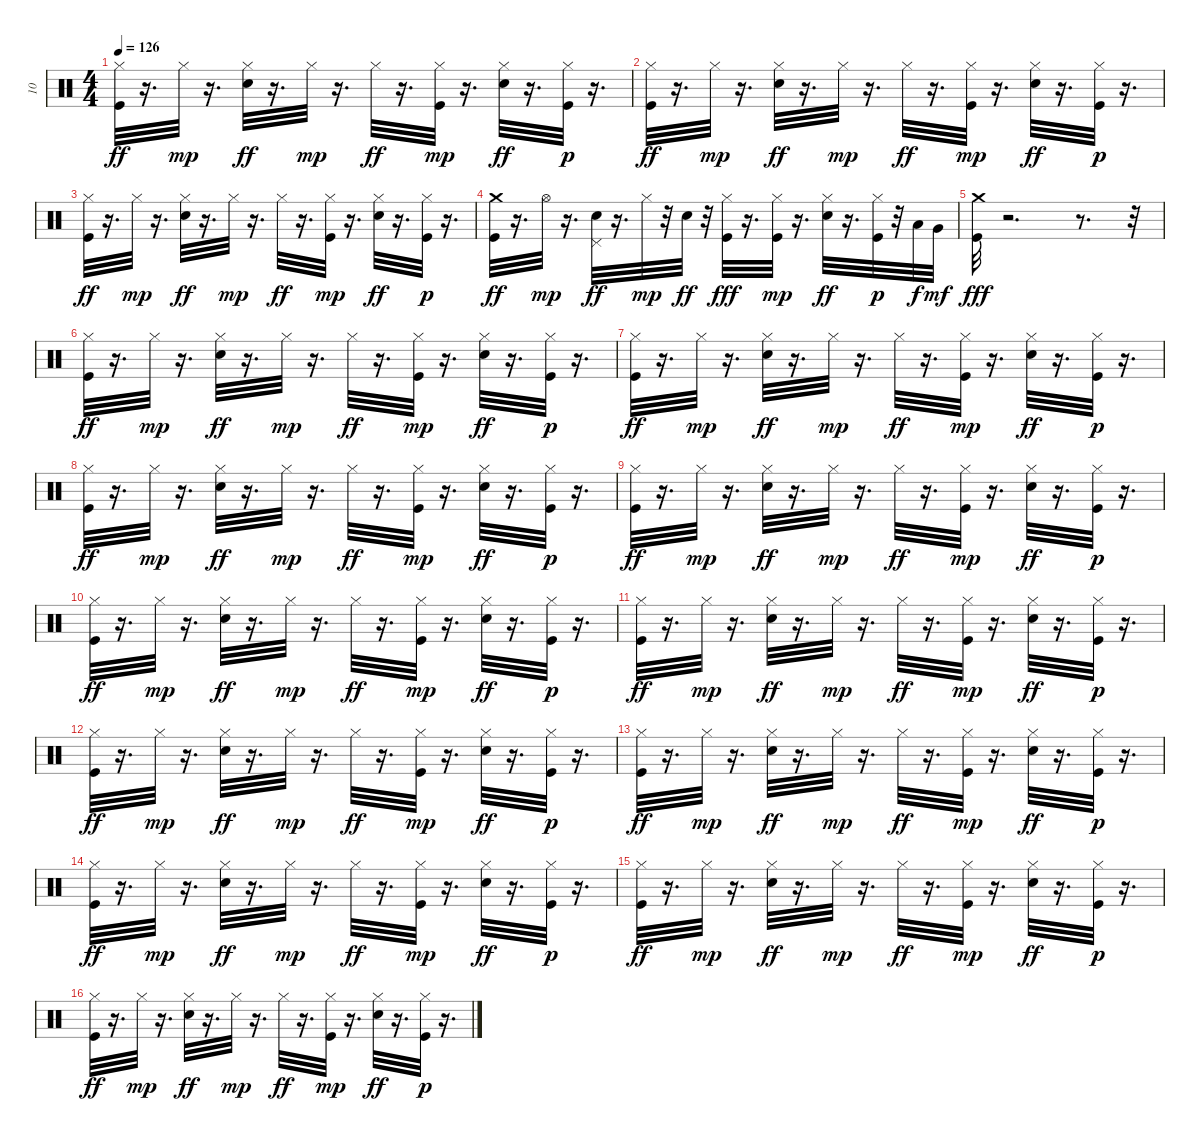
\track ("10" "10") {instrument percussion}
\staff {score}
\articulation defaults
\ts (4 4)
\tempo 126
\clef neutral
\ks c
("Kick (hit)" "Hi-Hat (closed)").32{dy ff} r.16{d} "Hi-Hat (closed)".32{dy mp} r.16{d} ("Hi-Hat (closed)" "Electric Snare (hit)").32{dy ff} r.16{d} "Hi-Hat (closed)".32{dy mp} r.16{d} "Hi-Hat (closed)".32{dy ff} r.16{d} ("Kick (hit)" "Hi-Hat (closed)").32{dy mp} r.16{d} ("Electric Snare (hit)" "Hi-Hat (closed)").32{dy ff} r.16{d} ("Kick (hit)" "Hi-Hat (closed)").32{dy p} r.16{d} |
("Kick (hit)" "Hi-Hat (closed)").32{dy ff} r.16{d} "Hi-Hat (closed)".32{dy mp} r.16{d} ("Hi-Hat (closed)" "Electric Snare (hit)").32{dy ff} r.16{d} "Hi-Hat (closed)".32{dy mp} r.16{d} "Hi-Hat (closed)".32{dy ff} r.16{d} ("Kick (hit)" "Hi-Hat (closed)").32{dy mp} r.16{d} ("Electric Snare (hit)" "Hi-Hat (closed)").32{dy ff} r.16{d} ("Kick (hit)" "Hi-Hat (closed)").32{dy p} r.16{d} |
("Kick (hit)" "Hi-Hat (closed)").32{dy ff} r.16{d} "Hi-Hat (closed)".32{dy mp} r.16{d} ("Hi-Hat (closed)" "Electric Snare (hit)").32{dy ff} r.16{d} "Hi-Hat (closed)".32{dy mp} r.16{d} "Hi-Hat (closed)".32{dy ff} r.16{d} ("Kick (hit)" "Hi-Hat (closed)").32{dy mp} r.16{d} ("Electric Snare (hit)" "Hi-Hat (closed)").32{dy ff} r.16{d} ("Kick (hit)" "Hi-Hat (closed)").32{dy p} r.16{d} |
("Kick (hit)" "Crash medium (hit)").32{dy ff} r.16{d} "Hi-Hat (open)".32{dy mp} r.16{d} ("Pedal Hi-Hat (hit)" "Electric Snare (hit)").32{dy ff} r.16{d} "Hi-Hat (closed)".32{dy mp} r.32 "Electric Snare (hit)".32{dy ff} r.32 ("Hi-Hat (closed)" "Kick (hit)").32{dy fff} r.16{d} ("Kick (hit)" "Hi-Hat (closed)").32{dy mp} r.16{d} ("Hi-Hat (closed)" "Electric Snare (hit)").32{dy ff} r.16{d} ("Kick (hit)" "Hi-Hat (closed)").32{dy p} r.32 "Low Tom (hit)".32{dy f} "Very Low Tom (hit)".32{dy mf} |
("Crash medium (hit)" "Kick (hit)").32{dy fff} r.2{d} r.8{d} r.32 |
("Kick (hit)" "Hi-Hat (closed)").32{dy ff} r.16{d} "Hi-Hat (closed)".32{dy mp} r.16{d} ("Hi-Hat (closed)" "Electric Snare (hit)").32{dy ff} r.16{d} "Hi-Hat (closed)".32{dy mp} r.16{d} "Hi-Hat (closed)".32{dy ff} r.16{d} ("Kick (hit)" "Hi-Hat (closed)").32{dy mp} r.16{d} ("Electric Snare (hit)" "Hi-Hat (closed)").32{dy ff} r.16{d} ("Kick (hit)" "Hi-Hat (closed)").32{dy p} r.16{d} |
("Kick (hit)" "Hi-Hat (closed)").32{dy ff} r.16{d} "Hi-Hat (closed)".32{dy mp} r.16{d} ("Hi-Hat (closed)" "Electric Snare (hit)").32{dy ff} r.16{d} "Hi-Hat (closed)".32{dy mp} r.16{d} "Hi-Hat (closed)".32{dy ff} r.16{d} ("Kick (hit)" "Hi-Hat (closed)").32{dy mp} r.16{d} ("Electric Snare (hit)" "Hi-Hat (closed)").32{dy ff} r.16{d} ("Kick (hit)" "Hi-Hat (closed)").32{dy p} r.16{d} |
("Kick (hit)" "Hi-Hat (closed)").32{dy ff} r.16{d} "Hi-Hat (closed)".32{dy mp} r.16{d} ("Hi-Hat (closed)" "Electric Snare (hit)").32{dy ff} r.16{d} "Hi-Hat (closed)".32{dy mp} r.16{d} "Hi-Hat (closed)".32{dy ff} r.16{d} ("Kick (hit)" "Hi-Hat (closed)").32{dy mp} r.16{d} ("Electric Snare (hit)" "Hi-Hat (closed)").32{dy ff} r.16{d} ("Kick (hit)" "Hi-Hat (closed)").32{dy p} r.16{d} |
("Kick (hit)" "Hi-Hat (closed)").32{dy ff} r.16{d} "Hi-Hat (closed)".32{dy mp} r.16{d} ("Hi-Hat (closed)" "Electric Snare (hit)").32{dy ff} r.16{d} "Hi-Hat (closed)".32{dy mp} r.16{d} "Hi-Hat (closed)".32{dy ff} r.16{d} ("Kick (hit)" "Hi-Hat (closed)").32{dy mp} r.16{d} ("Electric Snare (hit)" "Hi-Hat (closed)").32{dy ff} r.16{d} ("Kick (hit)" "Hi-Hat (closed)").32{dy p} r.16{d} |
("Kick (hit)" "Hi-Hat (closed)").32{dy ff} r.16{d} "Hi-Hat (closed)".32{dy mp} r.16{d} ("Hi-Hat (closed)" "Electric Snare (hit)").32{dy ff} r.16{d} "Hi-Hat (closed)".32{dy mp} r.16{d} "Hi-Hat (closed)".32{dy ff} r.16{d} ("Kick (hit)" "Hi-Hat (closed)").32{dy mp} r.16{d} ("Electric Snare (hit)" "Hi-Hat (closed)").32{dy ff} r.16{d} ("Kick (hit)" "Hi-Hat (closed)").32{dy p} r.16{d} |
("Kick (hit)" "Hi-Hat (closed)").32{dy ff} r.16{d} "Hi-Hat (closed)".32{dy mp} r.16{d} ("Hi-Hat (closed)" "Electric Snare (hit)").32{dy ff} r.16{d} "Hi-Hat (closed)".32{dy mp} r.16{d} "Hi-Hat (closed)".32{dy ff} r.16{d} ("Kick (hit)" "Hi-Hat (closed)").32{dy mp} r.16{d} ("Electric Snare (hit)" "Hi-Hat (closed)").32{dy ff} r.16{d} ("Kick (hit)" "Hi-Hat (closed)").32{dy p} r.16{d} |
("Kick (hit)" "Hi-Hat (closed)").32{dy ff} r.16{d} "Hi-Hat (closed)".32{dy mp} r.16{d} ("Hi-Hat (closed)" "Electric Snare (hit)").32{dy ff} r.16{d} "Hi-Hat (closed)".32{dy mp} r.16{d} "Hi-Hat (closed)".32{dy ff} r.16{d} ("Kick (hit)" "Hi-Hat (closed)").32{dy mp} r.16{d} ("Electric Snare (hit)" "Hi-Hat (closed)").32{dy ff} r.16{d} ("Kick (hit)" "Hi-Hat (closed)").32{dy p} r.16{d} |
("Kick (hit)" "Hi-Hat (closed)").32{dy ff} r.16{d} "Hi-Hat (closed)".32{dy mp} r.16{d} ("Hi-Hat (closed)" "Electric Snare (hit)").32{dy ff} r.16{d} "Hi-Hat (closed)".32{dy mp} r.16{d} "Hi-Hat (closed)".32{dy ff} r.16{d} ("Kick (hit)" "Hi-Hat (closed)").32{dy mp} r.16{d} ("Electric Snare (hit)" "Hi-Hat (closed)").32{dy ff} r.16{d} ("Kick (hit)" "Hi-Hat (closed)").32{dy p} r.16{d} |
("Kick (hit)" "Hi-Hat (closed)").32{dy ff} r.16{d} "Hi-Hat (closed)".32{dy mp} r.16{d} ("Hi-Hat (closed)" "Electric Snare (hit)").32{dy ff} r.16{d} "Hi-Hat (closed)".32{dy mp} r.16{d} "Hi-Hat (closed)".32{dy ff} r.16{d} ("Kick (hit)" "Hi-Hat (closed)").32{dy mp} r.16{d} ("Electric Snare (hit)" "Hi-Hat (closed)").32{dy ff} r.16{d} ("Kick (hit)" "Hi-Hat (closed)").32{dy p} r.16{d} |
("Kick (hit)" "Hi-Hat (closed)").32{dy ff} r.16{d} "Hi-Hat (closed)".32{dy mp} r.16{d} ("Hi-Hat (closed)" "Electric Snare (hit)").32{dy ff} r.16{d} "Hi-Hat (closed)".32{dy mp} r.16{d} "Hi-Hat (closed)".32{dy ff} r.16{d} ("Kick (hit)" "Hi-Hat (closed)").32{dy mp} r.16{d} ("Electric Snare (hit)" "Hi-Hat (closed)").32{dy ff} r.16{d} ("Kick (hit)" "Hi-Hat (closed)").32{dy p} r.16{d} |
("Kick (hit)" "Hi-Hat (closed)").32{dy ff} r.16{d} "Hi-Hat (closed)".32{dy mp} r.16{d} ("Hi-Hat (closed)" "Electric Snare (hit)").32{dy ff} r.16{d} "Hi-Hat (closed)".32{dy mp} r.16{d} "Hi-Hat (closed)".32{dy ff} r.16{d} ("Kick (hit)" "Hi-Hat (closed)").32{dy mp} r.16{d} ("Electric Snare (hit)" "Hi-Hat (closed)").32{dy ff} r.16{d} ("Kick (hit)" "Hi-Hat (closed)").32{dy p} r.16{d}
